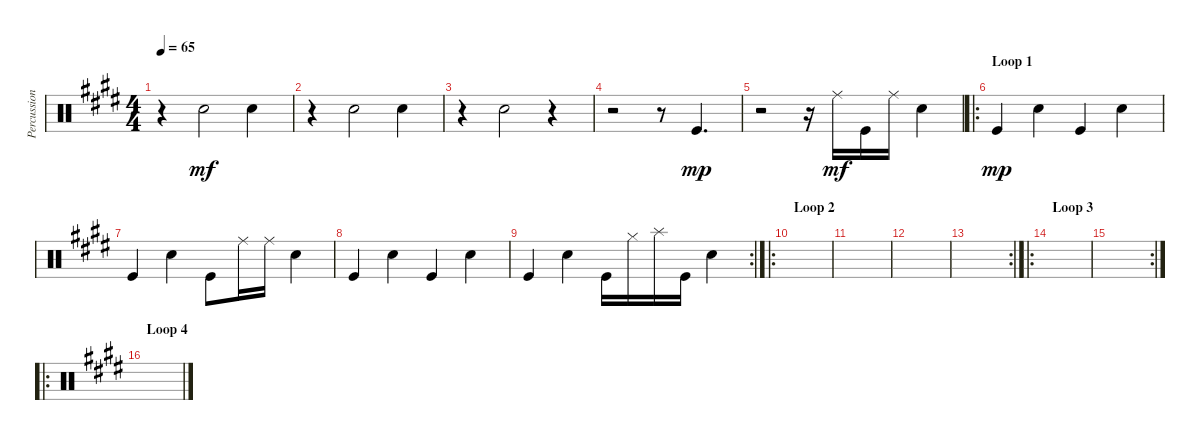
\track ("Percussion" "Percussion") {instrument percussion}
\staff {score}
\articulation defaults
\ts (4 4)
\tempo 65
\clef neutral
\ks e
r.4{dy mf} "Snare (hit) 2".2 "Snare (hit) 2".4 |
r.4 "Snare (hit) 2".2 "Snare (hit) 2".4 |
r.4 "Snare (hit) 2".2 r.4 |
r.2 r.8 "Kick (hit)".4{d dy mp} |
r.2 r.16 "Ride (middle)".16{dy mf} "Kick (hit)".16 "Ride (middle)".16 "Snare (hit) 2".4 |
\ro
\section ("" "Loop 1")
"Kick (hit)".4{dy mp} "Snare (hit) 2".4 "Kick (hit)".4 "Snare (hit) 2".4 |
"Kick (hit)".4 "Snare (hit) 2".4 "Kick (hit)".8 "Ride (middle)".16 "Ride (middle)".16 "Snare (hit) 2".4 |
"Kick (hit)".4 "Snare (hit) 2".4 "Kick (hit)".4 "Snare (hit) 2".4 |
\rc 2 "Kick (hit)".4 "Snare (hit) 2".4 "Kick (hit)".16 "Hi-Hat (closed)".16 "Splash (hit)".16 "Kick (hit)".16 "Snare (hit) 2".4
|
\ro
\section ("" "Loop 2")
|
|
|
\rc 2
|
\ro
\section ("" "Loop 3")
|
\rc 2
|
\ro
\section ("" "Loop 4")
